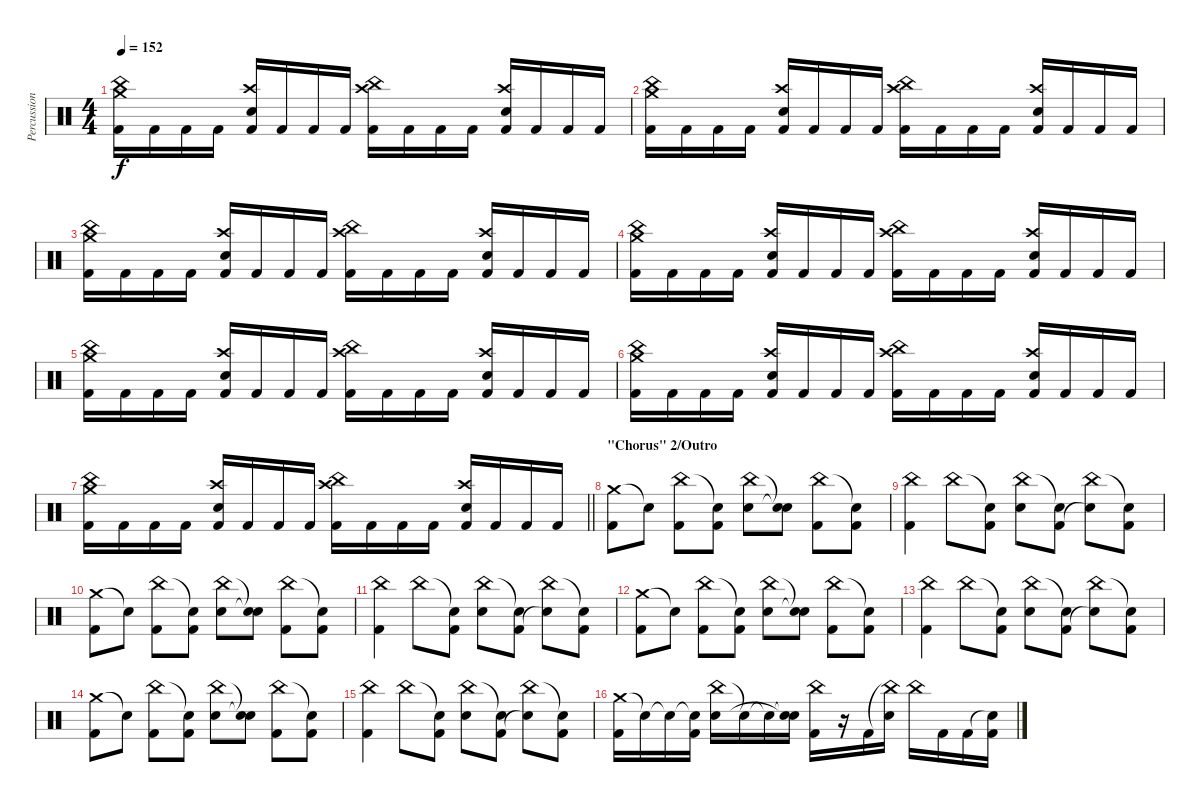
\track ("Percussion" "Percussion") {instrument percussion}
\staff {score}
\articulation defaults
\ts (4 4)
\tempo 152
\clef neutral
\ks c
("Crash medium (hit)" "China (hit)" "Kick (hit) 2").16{dy f} "Kick (hit) 2".16 "Kick (hit) 2".16 "Kick (hit) 2".16 ("Crash high (hit)" "Electric Snare (hit)" "Kick (hit) 2").16 "Kick (hit) 2".16 "Kick (hit) 2".16 "Kick (hit) 2".16 ("Crash high (hit)" "China (hit)" "Kick (hit) 2").16 "Kick (hit) 2".16 "Kick (hit) 2".16 "Kick (hit) 2".16 ("Crash high (hit)" "Electric Snare (hit)" "Kick (hit) 2").16 "Kick (hit) 2".16 "Kick (hit) 2".16 "Kick (hit) 2".16 |
("Crash medium (hit)" "China (hit)" "Kick (hit) 2").16 "Kick (hit) 2".16 "Kick (hit) 2".16 "Kick (hit) 2".16 ("Crash high (hit)" "Electric Snare (hit)" "Kick (hit) 2").16 "Kick (hit) 2".16 "Kick (hit) 2".16 "Kick (hit) 2".16 ("Crash high (hit)" "China (hit)" "Kick (hit) 2").16 "Kick (hit) 2".16 "Kick (hit) 2".16 "Kick (hit) 2".16 ("Crash high (hit)" "Electric Snare (hit)" "Kick (hit) 2").16 "Kick (hit) 2".16 "Kick (hit) 2".16 "Kick (hit) 2".16 |
("Crash medium (hit)" "China (hit)" "Kick (hit) 2").16 "Kick (hit) 2".16 "Kick (hit) 2".16 "Kick (hit) 2".16 ("Crash high (hit)" "Electric Snare (hit)" "Kick (hit) 2").16 "Kick (hit) 2".16 "Kick (hit) 2".16 "Kick (hit) 2".16 ("Crash high (hit)" "China (hit)" "Kick (hit) 2").16 "Kick (hit) 2".16 "Kick (hit) 2".16 "Kick (hit) 2".16 ("Crash high (hit)" "Electric Snare (hit)" "Kick (hit) 2").16 "Kick (hit) 2".16 "Kick (hit) 2".16 "Kick (hit) 2".16 |
("Crash medium (hit)" "China (hit)" "Kick (hit) 2").16 "Kick (hit) 2".16 "Kick (hit) 2".16 "Kick (hit) 2".16 ("Crash high (hit)" "Electric Snare (hit)" "Kick (hit) 2").16 "Kick (hit) 2".16 "Kick (hit) 2".16 "Kick (hit) 2".16 ("Crash high (hit)" "China (hit)" "Kick (hit) 2").16 "Kick (hit) 2".16 "Kick (hit) 2".16 "Kick (hit) 2".16 ("Crash high (hit)" "Electric Snare (hit)" "Kick (hit) 2").16 "Kick (hit) 2".16 "Kick (hit) 2".16 "Kick (hit) 2".16 |
("Crash medium (hit)" "China (hit)" "Kick (hit) 2").16 "Kick (hit) 2".16 "Kick (hit) 2".16 "Kick (hit) 2".16 ("Crash high (hit)" "Electric Snare (hit)" "Kick (hit) 2").16 "Kick (hit) 2".16 "Kick (hit) 2".16 "Kick (hit) 2".16 ("Crash high (hit)" "China (hit)" "Kick (hit) 2").16 "Kick (hit) 2".16 "Kick (hit) 2".16 "Kick (hit) 2".16 ("Crash high (hit)" "Electric Snare (hit)" "Kick (hit) 2").16 "Kick (hit) 2".16 "Kick (hit) 2".16 "Kick (hit) 2".16 |
("Crash medium (hit)" "China (hit)" "Kick (hit) 2").16 "Kick (hit) 2".16 "Kick (hit) 2".16 "Kick (hit) 2".16 ("Crash high (hit)" "Electric Snare (hit)" "Kick (hit) 2").16 "Kick (hit) 2".16 "Kick (hit) 2".16 "Kick (hit) 2".16 ("Crash high (hit)" "China (hit)" "Kick (hit) 2").16 "Kick (hit) 2".16 "Kick (hit) 2".16 "Kick (hit) 2".16 ("Crash high (hit)" "Electric Snare (hit)" "Kick (hit) 2").16 "Kick (hit) 2".16 "Kick (hit) 2".16 "Kick (hit) 2".16 |
\barLineRight lightlight
("Crash medium (hit)" "China (hit)" "Kick (hit) 2").16 "Kick (hit) 2".16 "Kick (hit) 2".16 "Kick (hit) 2".16 ("Crash high (hit)" "Electric Snare (hit)" "Kick (hit) 2").16 "Kick (hit) 2".16 "Kick (hit) 2".16 "Kick (hit) 2".16 ("Crash high (hit)" "China (hit)" "Kick (hit) 2").16 "Kick (hit) 2".16 "Kick (hit) 2".16 "Kick (hit) 2".16 ("Crash high (hit)" "Electric Snare (hit)" "Kick (hit) 2").16 "Kick (hit) 2".16 "Kick (hit) 2".16 "Kick (hit) 2".16 |
\section ("" "\"Chorus\" 2/Outro")
("Crash medium (hit)" "Kick (hit) 2").8 "Snare (hit)"{t}.8 ("China (hit)" "Kick (hit) 2").8 ("Snare (hit)"{t} "Kick (hit) 2").8 ("China (hit)" "Electric Snare (hit)").8 ("Snare (hit)"{t} "Snare (hit)"{t}).8 ("China (hit)" "Kick (hit) 2").8 ("Snare (hit)"{t} "Kick (hit) 2").8 |
("China (hit)" "Kick (hit) 2").4 "China (hit)".8 ("Snare (hit)"{t} "Kick (hit) 2").8 ("China (hit)" "Electric Snare (hit)").8 ("Snare (hit)"{t} "Kick (hit) 2").8 ("China (hit)" "Snare (hit)"{t}).8 ("Snare (hit)"{t} "Kick (hit) 2").8 |
("Crash medium (hit)" "Kick (hit) 2").8 "Snare (hit)"{t}.8 ("China (hit)" "Kick (hit) 2").8 ("Snare (hit)"{t} "Kick (hit) 2").8 ("China (hit)" "Electric Snare (hit)").8 ("Snare (hit)"{t} "Snare (hit)"{t}).8 ("China (hit)" "Kick (hit) 2").8 ("Snare (hit)"{t} "Kick (hit) 2").8 |
("China (hit)" "Kick (hit) 2").4 "China (hit)".8 ("Snare (hit)"{t} "Kick (hit) 2").8 ("China (hit)" "Electric Snare (hit)").8 ("Snare (hit)"{t} "Kick (hit) 2").8 ("China (hit)" "Snare (hit)"{t}).8 ("Snare (hit)"{t} "Kick (hit) 2").8 |
("Crash medium (hit)" "Kick (hit) 2").8 "Snare (hit)"{t}.8 ("China (hit)" "Kick (hit) 2").8 ("Snare (hit)"{t} "Kick (hit) 2").8 ("China (hit)" "Electric Snare (hit)").8 ("Snare (hit)"{t} "Snare (hit)"{t}).8 ("China (hit)" "Kick (hit) 2").8 ("Snare (hit)"{t} "Kick (hit) 2").8 |
("China (hit)" "Kick (hit) 2").4 "China (hit)".8 ("Snare (hit)"{t} "Kick (hit) 2").8 ("China (hit)" "Electric Snare (hit)").8 ("Snare (hit)"{t} "Kick (hit) 2").8 ("China (hit)" "Snare (hit)"{t}).8 ("Snare (hit)"{t} "Kick (hit) 2").8 |
("Crash medium (hit)" "Kick (hit) 2").8 "Snare (hit)"{t}.8 ("China (hit)" "Kick (hit) 2").8 ("Snare (hit)"{t} "Kick (hit) 2").8 ("China (hit)" "Electric Snare (hit)").8 ("Snare (hit)"{t} "Snare (hit)"{t}).8 ("China (hit)" "Kick (hit) 2").8 ("Snare (hit)"{t} "Kick (hit) 2").8 |
("China (hit)" "Kick (hit) 2").4 "China (hit)".8 ("Snare (hit)"{t} "Kick (hit) 2").8 ("China (hit)" "Electric Snare (hit)").8 ("Snare (hit)"{t} "Kick (hit) 2").8 ("China (hit)" "Snare (hit)"{t}).8 ("Snare (hit)"{t} "Kick (hit) 2").8 |
("Crash medium (hit)" "Kick (hit) 2").16 "Snare (hit)"{t}.16 "Snare (hit)"{t}.16 ("Snare (hit)"{t} "Kick (hit) 2").16 ("China (hit)" "Electric Snare (hit)").16 "Snare (hit)"{t}.16 "Snare (hit)"{t}.16 ("Snare (hit)"{t} "Snare (hit)"{t}).16 ("China (hit)" "Kick (hit) 2").16 r.16 "Kick (hit) 2".16 ("China (hit)"{t} "Electric Snare (hit)").16 "China (hit)".16 "Kick (hit) 2".16 "Kick (hit) 2".16 ("Snare (hit)"{t} "Kick (hit) 2").16
